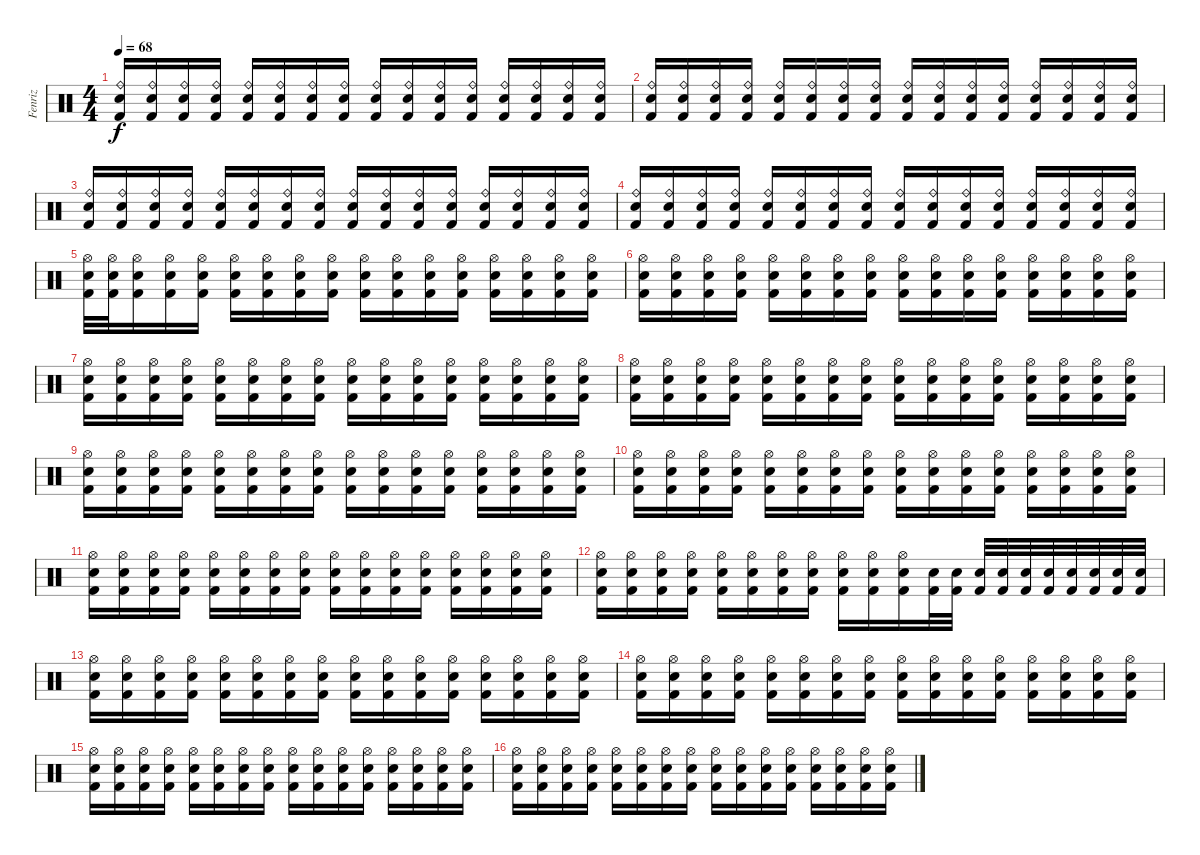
\track ("Fenriz" "Fenriz") {instrument percussion}
\staff {score}
\articulation defaults
\ts (4 4)
\tempo 68
\clef neutral
\ks c
("Snare (hit) 2" "Ride (bell)" "Kick (hit) 2").16{dy f} ("Snare (hit) 2" "Ride (bell)" "Kick (hit) 2").16 ("Snare (hit) 2" "Ride (bell)" "Kick (hit) 2").16 ("Snare (hit) 2" "Ride (bell)" "Kick (hit) 2").16 ("Snare (hit) 2" "Ride (bell)" "Kick (hit) 2").16 ("Snare (hit) 2" "Ride (bell)" "Kick (hit) 2").16 ("Snare (hit) 2" "Ride (bell)" "Kick (hit) 2").16 ("Snare (hit) 2" "Ride (bell)" "Kick (hit) 2").16 ("Snare (hit) 2" "Ride (bell)" "Kick (hit) 2").16 ("Snare (hit) 2" "Ride (bell)" "Kick (hit) 2").16 ("Snare (hit) 2" "Ride (bell)" "Kick (hit) 2").16 ("Snare (hit) 2" "Ride (bell)" "Kick (hit) 2").16 ("Snare (hit) 2" "Ride (bell)" "Kick (hit) 2").16 ("Snare (hit) 2" "Ride (bell)" "Kick (hit) 2").16 ("Snare (hit) 2" "Ride (bell)" "Kick (hit) 2").16 ("Snare (hit) 2" "Ride (bell)" "Kick (hit) 2").16 |
("Snare (hit) 2" "Ride (bell)" "Kick (hit) 2").16 ("Snare (hit) 2" "Ride (bell)" "Kick (hit) 2").16 ("Snare (hit) 2" "Ride (bell)" "Kick (hit) 2").16 ("Snare (hit) 2" "Ride (bell)" "Kick (hit) 2").16 ("Snare (hit) 2" "Ride (bell)" "Kick (hit) 2").16 ("Snare (hit) 2" "Ride (bell)" "Kick (hit) 2").16 ("Snare (hit) 2" "Ride (bell)" "Kick (hit) 2").16 ("Snare (hit) 2" "Ride (bell)" "Kick (hit) 2").16 ("Snare (hit) 2" "Ride (bell)" "Kick (hit) 2").16 ("Snare (hit) 2" "Ride (bell)" "Kick (hit) 2").16 ("Snare (hit) 2" "Ride (bell)" "Kick (hit) 2").16 ("Snare (hit) 2" "Ride (bell)" "Kick (hit) 2").16 ("Snare (hit) 2" "Ride (bell)" "Kick (hit) 2").16 ("Snare (hit) 2" "Ride (bell)" "Kick (hit) 2").16 ("Snare (hit) 2" "Ride (bell)" "Kick (hit) 2").16 ("Snare (hit) 2" "Ride (bell)" "Kick (hit) 2").16 |
("Snare (hit) 2" "Ride (bell)" "Kick (hit) 2").16 ("Snare (hit) 2" "Ride (bell)" "Kick (hit) 2").16 ("Snare (hit) 2" "Ride (bell)" "Kick (hit) 2").16 ("Snare (hit) 2" "Ride (bell)" "Kick (hit) 2").16 ("Snare (hit) 2" "Ride (bell)" "Kick (hit) 2").16 ("Snare (hit) 2" "Ride (bell)" "Kick (hit) 2").16 ("Snare (hit) 2" "Ride (bell)" "Kick (hit) 2").16 ("Snare (hit) 2" "Ride (bell)" "Kick (hit) 2").16 ("Snare (hit) 2" "Ride (bell)" "Kick (hit) 2").16 ("Snare (hit) 2" "Ride (bell)" "Kick (hit) 2").16 ("Snare (hit) 2" "Ride (bell)" "Kick (hit) 2").16 ("Snare (hit) 2" "Ride (bell)" "Kick (hit) 2").16 ("Snare (hit) 2" "Ride (bell)" "Kick (hit) 2").16 ("Snare (hit) 2" "Ride (bell)" "Kick (hit) 2").16 ("Snare (hit) 2" "Ride (bell)" "Kick (hit) 2").16 ("Snare (hit) 2" "Ride (bell)" "Kick (hit) 2").16 |
("Snare (hit) 2" "Ride (bell)" "Kick (hit) 2").16 ("Snare (hit) 2" "Ride (bell)" "Kick (hit) 2").16 ("Snare (hit) 2" "Ride (bell)" "Kick (hit) 2").16 ("Snare (hit) 2" "Ride (bell)" "Kick (hit) 2").16 ("Snare (hit) 2" "Ride (bell)" "Kick (hit) 2").16 ("Snare (hit) 2" "Ride (bell)" "Kick (hit) 2").16 ("Snare (hit) 2" "Ride (bell)" "Kick (hit) 2").16 ("Snare (hit) 2" "Ride (bell)" "Kick (hit) 2").16 ("Snare (hit) 2" "Ride (bell)" "Kick (hit) 2").16 ("Snare (hit) 2" "Ride (bell)" "Kick (hit) 2").16 ("Snare (hit) 2" "Ride (bell)" "Kick (hit) 2").16 ("Snare (hit) 2" "Ride (bell)" "Kick (hit) 2").16 ("Snare (hit) 2" "Ride (bell)" "Kick (hit) 2").16 ("Snare (hit) 2" "Ride (bell)" "Kick (hit) 2").16 ("Snare (hit) 2" "Ride (bell)" "Kick (hit) 2").16 ("Snare (hit) 2" "Ride (bell)" "Kick (hit) 2").16 |
("Hi-Hat (open)" "Snare (hit) 2" "Kick (hit) 2").32 ("Hi-Hat (open)" "Snare (hit) 2" "Kick (hit) 2").32 ("Hi-Hat (open)" "Snare (hit) 2" "Kick (hit) 2").16 ("Hi-Hat (open)" "Snare (hit) 2" "Kick (hit) 2").16 ("Hi-Hat (open)" "Snare (hit) 2" "Kick (hit) 2").16 ("Hi-Hat (open)" "Snare (hit) 2" "Kick (hit) 2").16 ("Hi-Hat (open)" "Snare (hit) 2" "Kick (hit) 2").16 ("Hi-Hat (open)" "Snare (hit) 2" "Kick (hit) 2").16 ("Hi-Hat (open)" "Snare (hit) 2" "Kick (hit) 2").16 ("Hi-Hat (open)" "Snare (hit) 2" "Kick (hit) 2").16 ("Hi-Hat (open)" "Snare (hit) 2" "Kick (hit) 2").16 ("Hi-Hat (open)" "Snare (hit) 2" "Kick (hit) 2").16 ("Hi-Hat (open)" "Snare (hit) 2" "Kick (hit) 2").16 ("Hi-Hat (open)" "Snare (hit) 2" "Kick (hit) 2").16 ("Hi-Hat (open)" "Snare (hit) 2" "Kick (hit) 2").16 ("Hi-Hat (open)" "Snare (hit) 2" "Kick (hit) 2").16 ("Hi-Hat (open)" "Snare (hit) 2" "Kick (hit) 2").16 |
("Hi-Hat (open)" "Snare (hit) 2" "Kick (hit) 2").16 ("Hi-Hat (open)" "Snare (hit) 2" "Kick (hit) 2").16 ("Hi-Hat (open)" "Snare (hit) 2" "Kick (hit) 2").16 ("Hi-Hat (open)" "Snare (hit) 2" "Kick (hit) 2").16 ("Hi-Hat (open)" "Snare (hit) 2" "Kick (hit) 2").16 ("Hi-Hat (open)" "Snare (hit) 2" "Kick (hit) 2").16 ("Hi-Hat (open)" "Snare (hit) 2" "Kick (hit) 2").16 ("Hi-Hat (open)" "Snare (hit) 2" "Kick (hit) 2").16 ("Hi-Hat (open)" "Snare (hit) 2" "Kick (hit) 2").16 ("Hi-Hat (open)" "Snare (hit) 2" "Kick (hit) 2").16 ("Hi-Hat (open)" "Snare (hit) 2" "Kick (hit) 2").16 ("Hi-Hat (open)" "Snare (hit) 2" "Kick (hit) 2").16 ("Hi-Hat (open)" "Snare (hit) 2" "Kick (hit) 2").16 ("Hi-Hat (open)" "Snare (hit) 2" "Kick (hit) 2").16 ("Hi-Hat (open)" "Snare (hit) 2" "Kick (hit) 2").16 ("Hi-Hat (open)" "Snare (hit) 2" "Kick (hit) 2").16 |
("Hi-Hat (open)" "Snare (hit) 2" "Kick (hit) 2").16 ("Hi-Hat (open)" "Snare (hit) 2" "Kick (hit) 2").16 ("Hi-Hat (open)" "Snare (hit) 2" "Kick (hit) 2").16 ("Hi-Hat (open)" "Snare (hit) 2" "Kick (hit) 2").16 ("Hi-Hat (open)" "Snare (hit) 2" "Kick (hit) 2").16 ("Hi-Hat (open)" "Snare (hit) 2" "Kick (hit) 2").16 ("Hi-Hat (open)" "Snare (hit) 2" "Kick (hit) 2").16 ("Hi-Hat (open)" "Snare (hit) 2" "Kick (hit) 2").16 ("Hi-Hat (open)" "Snare (hit) 2" "Kick (hit) 2").16 ("Hi-Hat (open)" "Snare (hit) 2" "Kick (hit) 2").16 ("Hi-Hat (open)" "Snare (hit) 2" "Kick (hit) 2").16 ("Hi-Hat (open)" "Snare (hit) 2" "Kick (hit) 2").16 ("Hi-Hat (open)" "Snare (hit) 2" "Kick (hit) 2").16 ("Hi-Hat (open)" "Snare (hit) 2" "Kick (hit) 2").16 ("Hi-Hat (open)" "Snare (hit) 2" "Kick (hit) 2").16 ("Hi-Hat (open)" "Snare (hit) 2" "Kick (hit) 2").16 |
("Hi-Hat (open)" "Snare (hit) 2" "Kick (hit) 2").16 ("Hi-Hat (open)" "Snare (hit) 2" "Kick (hit) 2").16 ("Hi-Hat (open)" "Snare (hit) 2" "Kick (hit) 2").16 ("Hi-Hat (open)" "Snare (hit) 2" "Kick (hit) 2").16 ("Hi-Hat (open)" "Snare (hit) 2" "Kick (hit) 2").16 ("Hi-Hat (open)" "Snare (hit) 2" "Kick (hit) 2").16 ("Hi-Hat (open)" "Snare (hit) 2" "Kick (hit) 2").16 ("Hi-Hat (open)" "Snare (hit) 2" "Kick (hit) 2").16 ("Hi-Hat (open)" "Snare (hit) 2" "Kick (hit) 2").16 ("Hi-Hat (open)" "Snare (hit) 2" "Kick (hit) 2").16 ("Hi-Hat (open)" "Snare (hit) 2" "Kick (hit) 2").16 ("Hi-Hat (open)" "Snare (hit) 2" "Kick (hit) 2").16 ("Hi-Hat (open)" "Snare (hit) 2" "Kick (hit) 2").16 ("Hi-Hat (open)" "Snare (hit) 2" "Kick (hit) 2").16 ("Hi-Hat (open)" "Snare (hit) 2" "Kick (hit) 2").16 ("Hi-Hat (open)" "Snare (hit) 2" "Kick (hit) 2").16 |
("Hi-Hat (open)" "Snare (hit) 2" "Kick (hit) 2").16 ("Hi-Hat (open)" "Snare (hit) 2" "Kick (hit) 2").16 ("Hi-Hat (open)" "Snare (hit) 2" "Kick (hit) 2").16 ("Hi-Hat (open)" "Snare (hit) 2" "Kick (hit) 2").16 ("Hi-Hat (open)" "Snare (hit) 2" "Kick (hit) 2").16 ("Hi-Hat (open)" "Snare (hit) 2" "Kick (hit) 2").16 ("Hi-Hat (open)" "Snare (hit) 2" "Kick (hit) 2").16 ("Hi-Hat (open)" "Snare (hit) 2" "Kick (hit) 2").16 ("Hi-Hat (open)" "Snare (hit) 2" "Kick (hit) 2").16 ("Hi-Hat (open)" "Snare (hit) 2" "Kick (hit) 2").16 ("Hi-Hat (open)" "Snare (hit) 2" "Kick (hit) 2").16 ("Hi-Hat (open)" "Snare (hit) 2" "Kick (hit) 2").16 ("Hi-Hat (open)" "Snare (hit) 2" "Kick (hit) 2").16 ("Hi-Hat (open)" "Snare (hit) 2" "Kick (hit) 2").16 ("Hi-Hat (open)" "Snare (hit) 2" "Kick (hit) 2").16 ("Hi-Hat (open)" "Snare (hit) 2" "Kick (hit) 2").16 |
("Hi-Hat (open)" "Snare (hit) 2" "Kick (hit) 2").16 ("Hi-Hat (open)" "Snare (hit) 2" "Kick (hit) 2").16 ("Hi-Hat (open)" "Snare (hit) 2" "Kick (hit) 2").16 ("Hi-Hat (open)" "Snare (hit) 2" "Kick (hit) 2").16 ("Hi-Hat (open)" "Snare (hit) 2" "Kick (hit) 2").16 ("Hi-Hat (open)" "Snare (hit) 2" "Kick (hit) 2").16 ("Hi-Hat (open)" "Snare (hit) 2" "Kick (hit) 2").16 ("Hi-Hat (open)" "Snare (hit) 2" "Kick (hit) 2").16 ("Hi-Hat (open)" "Snare (hit) 2" "Kick (hit) 2").16 ("Hi-Hat (open)" "Snare (hit) 2" "Kick (hit) 2").16 ("Hi-Hat (open)" "Snare (hit) 2" "Kick (hit) 2").16 ("Hi-Hat (open)" "Snare (hit) 2" "Kick (hit) 2").16 ("Hi-Hat (open)" "Snare (hit) 2" "Kick (hit) 2").16 ("Hi-Hat (open)" "Snare (hit) 2" "Kick (hit) 2").16 ("Hi-Hat (open)" "Snare (hit) 2" "Kick (hit) 2").16 ("Hi-Hat (open)" "Snare (hit) 2" "Kick (hit) 2").16 |
("Hi-Hat (open)" "Snare (hit) 2" "Kick (hit) 2").16 ("Hi-Hat (open)" "Snare (hit) 2" "Kick (hit) 2").16 ("Hi-Hat (open)" "Snare (hit) 2" "Kick (hit) 2").16 ("Hi-Hat (open)" "Snare (hit) 2" "Kick (hit) 2").16 ("Hi-Hat (open)" "Snare (hit) 2" "Kick (hit) 2").16 ("Hi-Hat (open)" "Snare (hit) 2" "Kick (hit) 2").16 ("Hi-Hat (open)" "Snare (hit) 2" "Kick (hit) 2").16 ("Hi-Hat (open)" "Snare (hit) 2" "Kick (hit) 2").16 ("Hi-Hat (open)" "Snare (hit) 2" "Kick (hit) 2").16 ("Hi-Hat (open)" "Snare (hit) 2" "Kick (hit) 2").16 ("Hi-Hat (open)" "Snare (hit) 2" "Kick (hit) 2").16 ("Hi-Hat (open)" "Snare (hit) 2" "Kick (hit) 2").16 ("Hi-Hat (open)" "Snare (hit) 2" "Kick (hit) 2").16 ("Hi-Hat (open)" "Snare (hit) 2" "Kick (hit) 2").16 ("Hi-Hat (open)" "Snare (hit) 2" "Kick (hit) 2").16 ("Hi-Hat (open)" "Snare (hit) 2" "Kick (hit) 2").16 |
("Hi-Hat (open)" "Snare (hit) 2" "Kick (hit) 2").16 ("Hi-Hat (open)" "Snare (hit) 2" "Kick (hit) 2").16 ("Hi-Hat (open)" "Snare (hit) 2" "Kick (hit) 2").16 ("Hi-Hat (open)" "Snare (hit) 2" "Kick (hit) 2").16 ("Hi-Hat (open)" "Snare (hit) 2" "Kick (hit) 2").16 ("Hi-Hat (open)" "Snare (hit) 2" "Kick (hit) 2").16 ("Hi-Hat (open)" "Snare (hit) 2" "Kick (hit) 2").16 ("Hi-Hat (open)" "Snare (hit) 2" "Kick (hit) 2").16 ("Hi-Hat (open)" "Snare (hit) 2" "Kick (hit) 2").16 ("Hi-Hat (open)" "Snare (hit) 2" "Kick (hit) 2").16 ("Hi-Hat (open)" "Snare (hit) 2" "Kick (hit) 2").16 ("Snare (hit) 2" "Kick (hit) 2").32 ("Snare (hit) 2" "Kick (hit) 2").32 ("Snare (hit) 2" "Kick (hit) 2").32 ("Snare (hit) 2" "Kick (hit) 2").32 ("Snare (hit) 2" "Kick (hit) 2").32 ("Snare (hit) 2" "Kick (hit) 2").32 ("Snare (hit) 2" "Kick (hit) 2").32 ("Snare (hit) 2" "Kick (hit) 2").32 ("Snare (hit) 2" "Kick (hit) 2").32 ("Snare (hit) 2" "Kick (hit) 2").32 |
("Hi-Hat (open)" "Snare (hit) 2" "Kick (hit) 2").16 ("Hi-Hat (open)" "Snare (hit) 2" "Kick (hit) 2").16 ("Hi-Hat (open)" "Snare (hit) 2" "Kick (hit) 2").16 ("Hi-Hat (open)" "Snare (hit) 2" "Kick (hit) 2").16 ("Hi-Hat (open)" "Snare (hit) 2" "Kick (hit) 2").16 ("Hi-Hat (open)" "Snare (hit) 2" "Kick (hit) 2").16 ("Hi-Hat (open)" "Snare (hit) 2" "Kick (hit) 2").16 ("Hi-Hat (open)" "Snare (hit) 2" "Kick (hit) 2").16 ("Hi-Hat (open)" "Snare (hit) 2" "Kick (hit) 2").16 ("Hi-Hat (open)" "Snare (hit) 2" "Kick (hit) 2").16 ("Hi-Hat (open)" "Snare (hit) 2" "Kick (hit) 2").16 ("Hi-Hat (open)" "Snare (hit) 2" "Kick (hit) 2").16 ("Hi-Hat (open)" "Snare (hit) 2" "Kick (hit) 2").16 ("Hi-Hat (open)" "Snare (hit) 2" "Kick (hit) 2").16 ("Hi-Hat (open)" "Snare (hit) 2" "Kick (hit) 2").16 ("Hi-Hat (open)" "Snare (hit) 2" "Kick (hit) 2").16 |
("Hi-Hat (open)" "Snare (hit) 2" "Kick (hit) 2").16 ("Hi-Hat (open)" "Snare (hit) 2" "Kick (hit) 2").16 ("Hi-Hat (open)" "Snare (hit) 2" "Kick (hit) 2").16 ("Hi-Hat (open)" "Snare (hit) 2" "Kick (hit) 2").16 ("Hi-Hat (open)" "Snare (hit) 2" "Kick (hit) 2").16 ("Hi-Hat (open)" "Snare (hit) 2" "Kick (hit) 2").16 ("Hi-Hat (open)" "Snare (hit) 2" "Kick (hit) 2").16 ("Hi-Hat (open)" "Snare (hit) 2" "Kick (hit) 2").16 ("Hi-Hat (open)" "Snare (hit) 2" "Kick (hit) 2").16 ("Hi-Hat (open)" "Snare (hit) 2" "Kick (hit) 2").16 ("Hi-Hat (open)" "Snare (hit) 2" "Kick (hit) 2").16 ("Hi-Hat (open)" "Snare (hit) 2" "Kick (hit) 2").16 ("Hi-Hat (open)" "Snare (hit) 2" "Kick (hit) 2").16 ("Hi-Hat (open)" "Snare (hit) 2" "Kick (hit) 2").16 ("Hi-Hat (open)" "Snare (hit) 2" "Kick (hit) 2").16 ("Hi-Hat (open)" "Snare (hit) 2" "Kick (hit) 2").16 |
("Hi-Hat (open)" "Snare (hit) 2" "Kick (hit) 2").16 ("Hi-Hat (open)" "Snare (hit) 2" "Kick (hit) 2").16 ("Hi-Hat (open)" "Snare (hit) 2" "Kick (hit) 2").16 ("Hi-Hat (open)" "Snare (hit) 2" "Kick (hit) 2").16 ("Hi-Hat (open)" "Snare (hit) 2" "Kick (hit) 2").16 ("Hi-Hat (open)" "Snare (hit) 2" "Kick (hit) 2").16 ("Hi-Hat (open)" "Snare (hit) 2" "Kick (hit) 2").16 ("Hi-Hat (open)" "Snare (hit) 2" "Kick (hit) 2").16 ("Hi-Hat (open)" "Snare (hit) 2" "Kick (hit) 2").16 ("Hi-Hat (open)" "Snare (hit) 2" "Kick (hit) 2").16 ("Hi-Hat (open)" "Snare (hit) 2" "Kick (hit) 2").16 ("Hi-Hat (open)" "Snare (hit) 2" "Kick (hit) 2").16 ("Hi-Hat (open)" "Snare (hit) 2" "Kick (hit) 2").16 ("Hi-Hat (open)" "Snare (hit) 2" "Kick (hit) 2").16 ("Hi-Hat (open)" "Snare (hit) 2" "Kick (hit) 2").16 ("Hi-Hat (open)" "Snare (hit) 2" "Kick (hit) 2").16 |
("Hi-Hat (open)" "Snare (hit) 2" "Kick (hit) 2").16 ("Hi-Hat (open)" "Snare (hit) 2" "Kick (hit) 2").16 ("Hi-Hat (open)" "Snare (hit) 2" "Kick (hit) 2").16 ("Hi-Hat (open)" "Snare (hit) 2" "Kick (hit) 2").16 ("Hi-Hat (open)" "Snare (hit) 2" "Kick (hit) 2").16 ("Hi-Hat (open)" "Snare (hit) 2" "Kick (hit) 2").16 ("Hi-Hat (open)" "Snare (hit) 2" "Kick (hit) 2").16 ("Hi-Hat (open)" "Snare (hit) 2" "Kick (hit) 2").16 ("Hi-Hat (open)" "Snare (hit) 2" "Kick (hit) 2").16 ("Hi-Hat (open)" "Snare (hit) 2" "Kick (hit) 2").16 ("Hi-Hat (open)" "Snare (hit) 2" "Kick (hit) 2").16 ("Hi-Hat (open)" "Snare (hit) 2" "Kick (hit) 2").16 ("Hi-Hat (open)" "Snare (hit) 2" "Kick (hit) 2").16 ("Hi-Hat (open)" "Snare (hit) 2" "Kick (hit) 2").16 ("Hi-Hat (open)" "Snare (hit) 2" "Kick (hit) 2").16 ("Hi-Hat (open)" "Snare (hit) 2" "Kick (hit) 2").16
